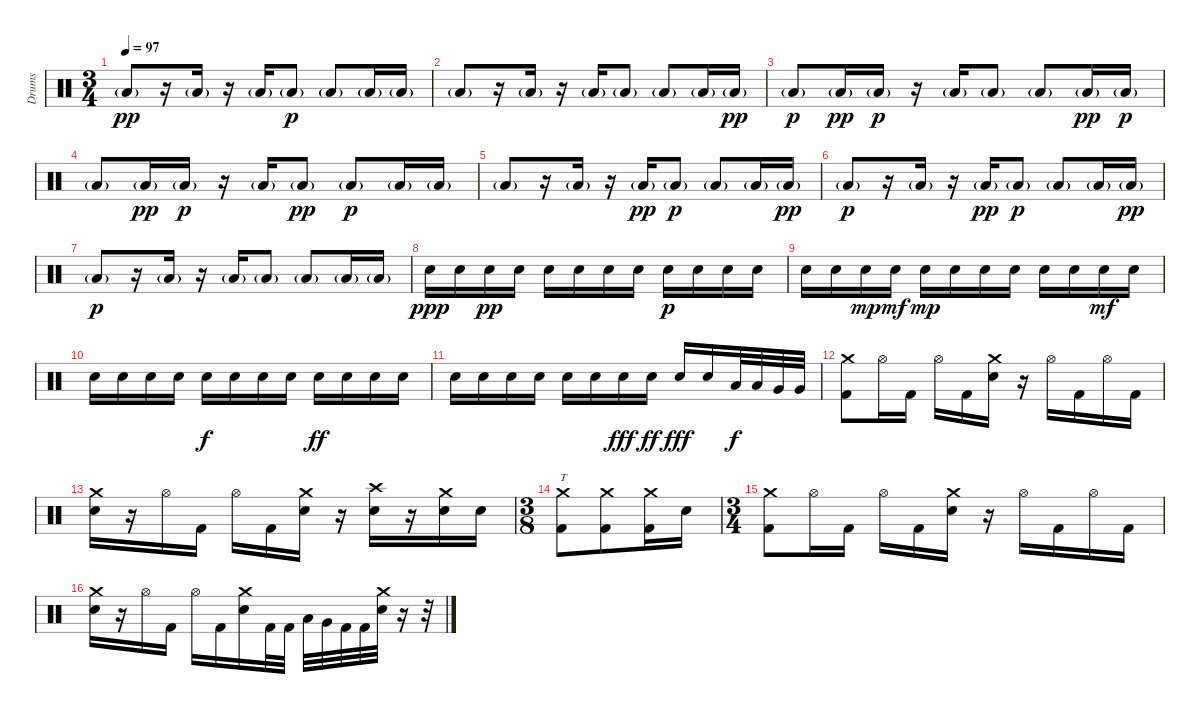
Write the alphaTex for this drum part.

\track ("Drums" "Drums") {instrument percussion}
\staff {score}
\articulation defaults
\ts (3 4)
\tempo 97
\clef neutral
\ks c "Low Floor Tom (hit)"{g}.8{dy pp}
r.16 "Low Floor Tom (hit)"{g}.16 r.16 "Low Floor Tom (hit)"{g}.16 "Low Floor Tom (hit)"{g}.8{dy p} "Low Floor Tom (hit)"{g}.8 "Low Floor Tom (hit)"{g}.16 "Low Floor Tom (hit)"{g}.16 |
"Low Floor Tom (hit)"{g}.8 r.16 "Low Floor Tom (hit)"{g}.16 r.16 "Low Floor Tom (hit)"{g}.16 "Low Floor Tom (hit)"{g}.8 "Low Floor Tom (hit)"{g}.8 "Low Floor Tom (hit)"{g}.16 "Low Floor Tom (hit)"{g}.16{dy pp} |
"Low Floor Tom (hit)"{g}.8{dy p} "Low Floor Tom (hit)"{g}.16{dy pp} "Low Floor Tom (hit)"{g}.16{dy p} r.16 "Low Floor Tom (hit)"{g}.16 "Low Floor Tom (hit)"{g}.8 "Low Floor Tom (hit)"{g}.8 "Low Floor Tom (hit)"{g}.16{dy pp} "Low Floor Tom (hit)"{g}.16{dy p} |
"Low Floor Tom (hit)"{g}.8 "Low Floor Tom (hit)"{g}.16{dy pp} "Low Floor Tom (hit)"{g}.16{dy p} r.16 "Low Floor Tom (hit)"{g}.16 "Low Floor Tom (hit)"{g}.8{dy pp} "Low Floor Tom (hit)"{g}.8{dy p} "Low Floor Tom (hit)"{g}.16 "Low Floor Tom (hit)"{g}.16 |
"Low Floor Tom (hit)"{g}.8 r.16 "Low Floor Tom (hit)"{g}.16 r.16 "Low Floor Tom (hit)"{g}.16{dy pp} "Low Floor Tom (hit)"{g}.8{dy p} "Low Floor Tom (hit)"{g}.8 "Low Floor Tom (hit)"{g}.16 "Low Floor Tom (hit)"{g}.16{dy pp} |
"Low Floor Tom (hit)"{g}.8{dy p} r.16 "Low Floor Tom (hit)"{g}.16 r.16 "Low Floor Tom (hit)"{g}.16{dy pp} "Low Floor Tom (hit)"{g}.8{dy p} "Low Floor Tom (hit)"{g}.8 "Low Floor Tom (hit)"{g}.16 "Low Floor Tom (hit)"{g}.16{dy pp} |
"Low Floor Tom (hit)"{g}.8{dy p} r.16 "Low Floor Tom (hit)"{g}.16 r.16 "Low Floor Tom (hit)"{g}.16 "Low Floor Tom (hit)"{g}.8 "Low Floor Tom (hit)"{g}.8 "Low Floor Tom (hit)"{g}.16 "Low Floor Tom (hit)"{g}.16 |
"Electric Snare (hit)".16{dy ppp} "Electric Snare (hit)".16 "Electric Snare (hit)".16{dy pp} "Electric Snare (hit)".16 "Electric Snare (hit)".16 "Electric Snare (hit)".16 "Electric Snare (hit)".16 "Electric Snare (hit)".16 "Electric Snare (hit)".16{dy p} "Electric Snare (hit)".16 "Electric Snare (hit)".16 "Electric Snare (hit)".16 |
"Electric Snare (hit)".16 "Electric Snare (hit)".16 "Electric Snare (hit)".16{dy mp} "Electric Snare (hit)".16{dy mf} "Electric Snare (hit)".16{dy mp} "Electric Snare (hit)".16 "Electric Snare (hit)".16 "Electric Snare (hit)".16 "Electric Snare (hit)".16 "Electric Snare (hit)".16 "Electric Snare (hit)".16{dy mf} "Electric Snare (hit)".16 |
"Electric Snare (hit)".16 "Electric Snare (hit)".16 "Electric Snare (hit)".16 "Electric Snare (hit)".16 "Electric Snare (hit)".16{dy f} "Electric Snare (hit)".16 "Electric Snare (hit)".16 "Electric Snare (hit)".16 "Electric Snare (hit)".16{dy ff} "Electric Snare (hit)".16 "Electric Snare (hit)".16 "Electric Snare (hit)".16 |
"Electric Snare (hit)".16 "Electric Snare (hit)".16 "Electric Snare (hit)".16 "Electric Snare (hit)".16 "Electric Snare (hit)".16 "Electric Snare (hit)".16 "Electric Snare (hit)".16{dy fff} "Electric Snare (hit)".16{dy ff} "Electric Snare (hit)".16{dy fff} "Electric Snare (hit)".16 "Low Tom (hit)".32{dy f} "Low Tom (hit)".32 "Very Low Tom (hit)".32 "Very Low Tom (hit)".32 |
("Crash medium (hit)" "Kick (hit) 2").8 "Hi-Hat (open)".16 "Kick (hit) 2".16 "Hi-Hat (open)".16 "Kick (hit) 2".16 ("Crash medium (hit)" "Electric Snare (hit)").16 r.16 "Hi-Hat (open)".16 "Kick (hit) 2".16 "Hi-Hat (open)".16 "Kick (hit) 2".16 |
("Crash medium (hit)" "Electric Snare (hit)").16 r.16 "Hi-Hat (open)".16 "Kick (hit) 2".16 "Hi-Hat (open)".16 "Kick (hit) 2".16 ("Crash medium (hit)" "Electric Snare (hit)").16 r.16 ("Crash high (hit)" "Electric Snare (hit)").16 r.16 ("Crash medium (hit)" "Electric Snare (hit)").16 "Electric Snare (hit)".16 |
\ts (3 8)
("Crash medium (hit)"{pm} "Kick (hit) 2").8{tt} ("Crash medium (hit)"{pm} "Kick (hit) 2").8 ("Crash medium (hit)"{pm} "Kick (hit) 2").16 "Electric Snare (hit)".16 |
\ts (3 4)
("Crash medium (hit)" "Kick (hit) 2").8 "Hi-Hat (open)".16 "Kick (hit) 2".16 "Hi-Hat (open)".16 "Kick (hit) 2".16 ("Crash medium (hit)" "Electric Snare (hit)").16 r.16 "Hi-Hat (open)".16 "Kick (hit) 2".16 "Hi-Hat (open)".16 "Kick (hit) 2".16 |
("Crash medium (hit)" "Electric Snare (hit)").16 r.16 "Hi-Hat (open)".16 "Kick (hit) 2".16 "Hi-Hat (open)".16 "Kick (hit) 2".16 ("Crash medium (hit)" "Electric Snare (hit)").16 "Kick (hit) 2".32 "Kick (hit) 2".32 "Low Tom (hit)".32 "Very Low Tom (hit)".32 "Kick (hit) 2".32 "Kick (hit) 2".32 ("Crash medium (hit)" "Electric Snare (hit)").32 r.16 r.32
